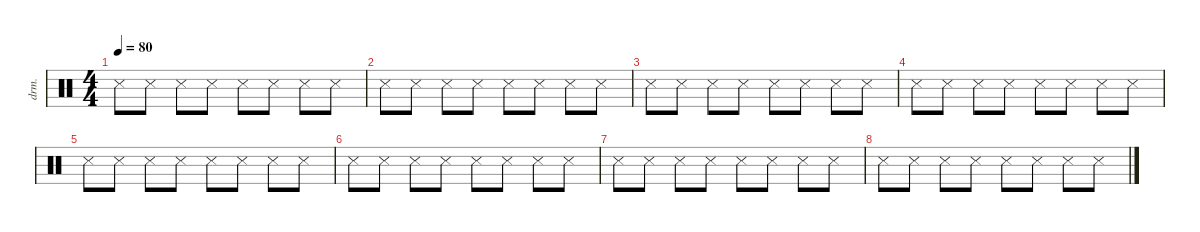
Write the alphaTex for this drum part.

\defaultSystemsLayout 4
\hideDynamics
\bracketExtendMode nobrackets
\otherSystemsTrackNameOrientation horizontal
\track ("Drumkit" "drm.") {instrument percussion}
\staff {score}
\articulation defaults
\ts (4 4)
\tempo 80
\clef neutral
\ks c "Metronome (hit)".8{dy mf} "Metronome (hit)".8 "Metronome (hit)".8 "Metronome (hit)".8 "Metronome (hit)".8 "Metronome (hit)".8 "Metronome (hit)".8 "Metronome (hit)".8
|
"Metronome (hit)".8 "Metronome (hit)".8 "Metronome (hit)".8 "Metronome (hit)".8 "Metronome (hit)".8 "Metronome (hit)".8 "Metronome (hit)".8 "Metronome (hit)".8 |
"Metronome (hit)".8 "Metronome (hit)".8 "Metronome (hit)".8 "Metronome (hit)".8 "Metronome (hit)".8 "Metronome (hit)".8 "Metronome (hit)".8 "Metronome (hit)".8 |
"Metronome (hit)".8 "Metronome (hit)".8 "Metronome (hit)".8 "Metronome (hit)".8 "Metronome (hit)".8 "Metronome (hit)".8 "Metronome (hit)".8 "Metronome (hit)".8 |
"Metronome (hit)".8 "Metronome (hit)".8 "Metronome (hit)".8 "Metronome (hit)".8 "Metronome (hit)".8 "Metronome (hit)".8 "Metronome (hit)".8 "Metronome (hit)".8 |
"Metronome (hit)".8 "Metronome (hit)".8 "Metronome (hit)".8 "Metronome (hit)".8 "Metronome (hit)".8 "Metronome (hit)".8 "Metronome (hit)".8 "Metronome (hit)".8 |
"Metronome (hit)".8 "Metronome (hit)".8 "Metronome (hit)".8 "Metronome (hit)".8 "Metronome (hit)".8 "Metronome (hit)".8 "Metronome (hit)".8 "Metronome (hit)".8 |
"Metronome (hit)".8 "Metronome (hit)".8 "Metronome (hit)".8 "Metronome (hit)".8 "Metronome (hit)".8 "Metronome (hit)".8 "Metronome (hit)".8 "Metronome (hit)".8
